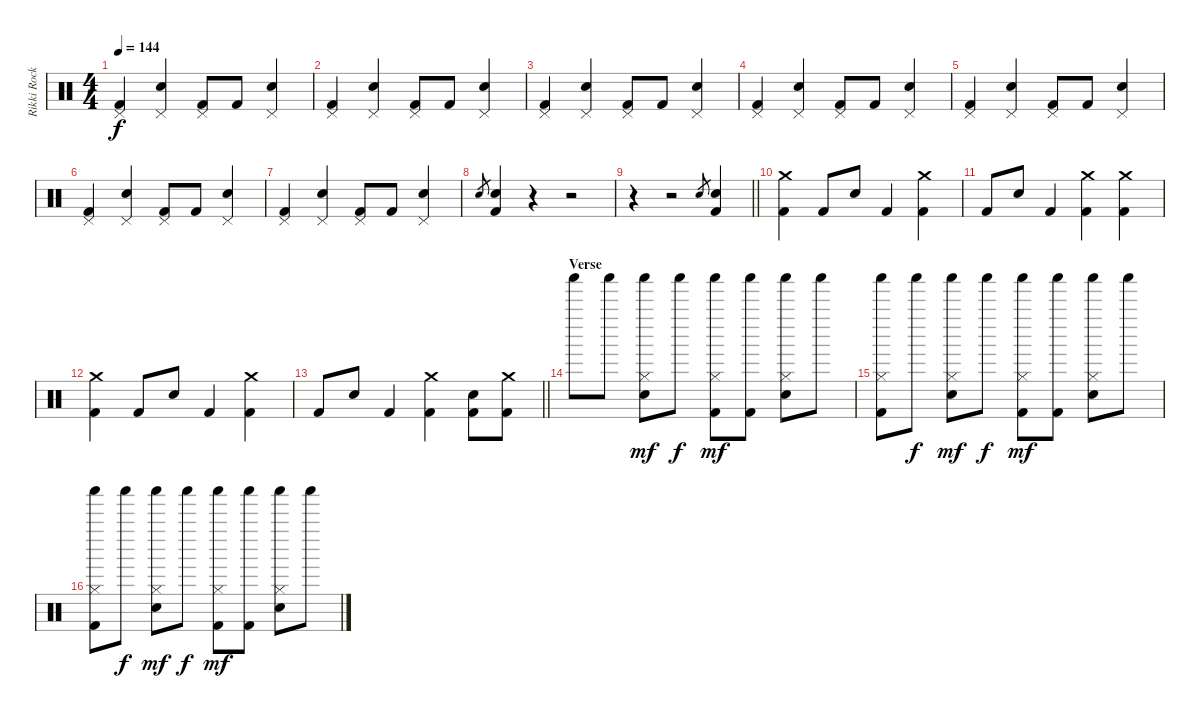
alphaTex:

\track ("Rikki Rockett - Drums" "Rikki Rock") {instrument percussion}
\staff {score}
\articulation defaults
\ts (4 4)
\tempo 144
\clef neutral
\ks c
("Pedal Hi-Hat (hit)" "Kick (hit) 2").4{dy f} ("Pedal Hi-Hat (hit)" "Electric Snare (hit)").4 ("Pedal Hi-Hat (hit)" "Kick (hit) 2").8 "Kick (hit) 2".8 ("Pedal Hi-Hat (hit)" "Electric Snare (hit)").4 |
("Pedal Hi-Hat (hit)" "Kick (hit) 2").4 ("Pedal Hi-Hat (hit)" "Electric Snare (hit)").4 ("Pedal Hi-Hat (hit)" "Kick (hit) 2").8 "Kick (hit) 2".8 ("Pedal Hi-Hat (hit)" "Electric Snare (hit)").4 |
("Pedal Hi-Hat (hit)" "Kick (hit) 2").4 ("Pedal Hi-Hat (hit)" "Electric Snare (hit)").4 ("Pedal Hi-Hat (hit)" "Kick (hit) 2").8 "Kick (hit) 2".8 ("Pedal Hi-Hat (hit)" "Electric Snare (hit)").4 |
("Pedal Hi-Hat (hit)" "Kick (hit) 2").4 ("Pedal Hi-Hat (hit)" "Electric Snare (hit)").4 ("Pedal Hi-Hat (hit)" "Kick (hit) 2").8 "Kick (hit) 2".8 ("Pedal Hi-Hat (hit)" "Electric Snare (hit)").4 |
("Pedal Hi-Hat (hit)" "Kick (hit) 2").4 ("Pedal Hi-Hat (hit)" "Electric Snare (hit)").4 ("Pedal Hi-Hat (hit)" "Kick (hit) 2").8 "Kick (hit) 2".8 ("Pedal Hi-Hat (hit)" "Electric Snare (hit)").4 |
("Pedal Hi-Hat (hit)" "Kick (hit) 2").4 ("Pedal Hi-Hat (hit)" "Electric Snare (hit)").4 ("Pedal Hi-Hat (hit)" "Kick (hit) 2").8 "Kick (hit) 2".8 ("Pedal Hi-Hat (hit)" "Electric Snare (hit)").4 |
("Pedal Hi-Hat (hit)" "Kick (hit) 2").4 ("Pedal Hi-Hat (hit)" "Electric Snare (hit)").4 ("Pedal Hi-Hat (hit)" "Kick (hit) 2").8 "Kick (hit) 2".8 ("Pedal Hi-Hat (hit)" "Electric Snare (hit)").4 |
"Electric Snare (hit)".8{gr} ("Electric Snare (hit)" "Kick (hit) 2").4 r.4 r.2 |
\barLineRight lightlight
r.4 r.2 "Electric Snare (hit)".8{gr} ("Electric Snare (hit)" "Kick (hit) 2").4 |
\section ("" "")
("Crash medium (hit)" "Kick (hit) 2").4 "Kick (hit) 2".8 "Electric Snare (hit)".8 "Kick (hit) 2".4 ("Crash medium (hit)" "Kick (hit) 2").4 |
"Kick (hit) 2".8 "Electric Snare (hit)".8 "Kick (hit) 2".4 ("Crash medium (hit)" "Kick (hit) 2").4 ("Crash medium (hit)" "Kick (hit) 2").4 |
("Crash medium (hit)" "Kick (hit) 2").4 "Kick (hit) 2".8 "Electric Snare (hit)".8 "Kick (hit) 2".4 ("Crash medium (hit)" "Kick (hit) 2").4 |
\barLineRight lightlight "Kick (hit) 2".8 "Electric Snare (hit)".8 "Kick (hit) 2".4
("Crash medium (hit)" "Kick (hit) 2").4 ("Electric Snare (hit)" "Kick (hit) 2").8 ("Crash medium (hit)" "Kick (hit) 2").8 |
\section ("" "Verse")
"Shaker (hit)".8 "Shaker (hit)".8 ("Hi-Hat (closed)" "Shaker (hit)" "Electric Snare (hit)").8{dy mf} "Shaker (hit)".8{dy f} ("Hi-Hat (closed)" "Shaker (hit)" "Kick (hit) 2").8{dy mf} ("Shaker (hit)" "Kick (hit) 2").8 ("Hi-Hat (closed)" "Shaker (hit)" "Electric Snare (hit)").8 "Shaker (hit)".8 |
("Hi-Hat (closed)" "Shaker (hit)" "Kick (hit) 2").8 "Shaker (hit)".8{dy f} ("Hi-Hat (closed)" "Shaker (hit)" "Electric Snare (hit)").8{dy mf} "Shaker (hit)".8{dy f} ("Hi-Hat (closed)" "Shaker (hit)" "Kick (hit) 2").8{dy mf} ("Shaker (hit)" "Kick (hit) 2").8 ("Hi-Hat (closed)" "Shaker (hit)" "Electric Snare (hit)").8 "Shaker (hit)".8 |
("Hi-Hat (closed)" "Shaker (hit)" "Kick (hit) 2").8 "Shaker (hit)".8{dy f} ("Hi-Hat (closed)" "Shaker (hit)" "Electric Snare (hit)").8{dy mf} "Shaker (hit)".8{dy f} ("Hi-Hat (closed)" "Shaker (hit)" "Kick (hit) 2").8{dy mf} ("Shaker (hit)" "Kick (hit) 2").8 ("Hi-Hat (closed)" "Shaker (hit)" "Electric Snare (hit)").8 "Shaker (hit)".8
